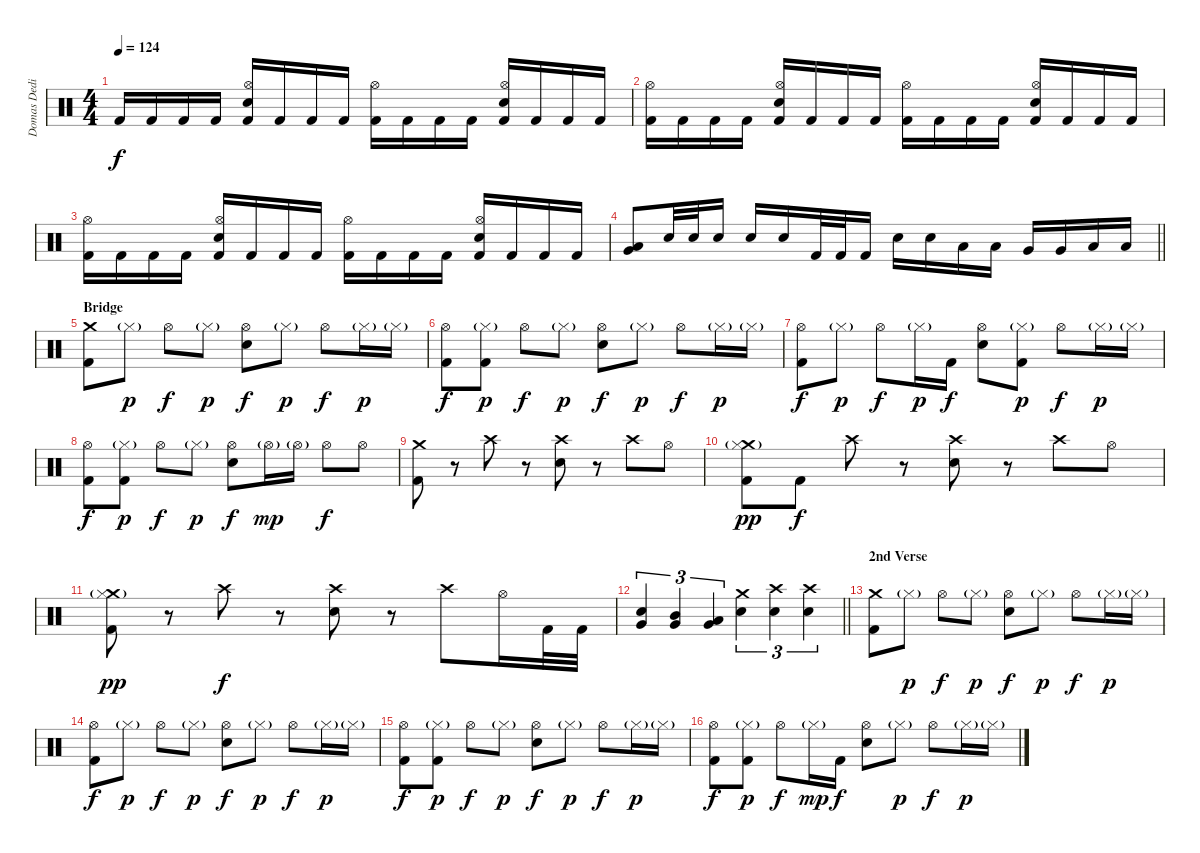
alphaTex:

\track ("Domas Dedinas" "Domas Dedi") {instrument percussion}
\staff {score}
\articulation defaults
\ts (4 4)
\tempo 124
\clef neutral
\ks c "Kick (hit) 2".16{dy f} "Kick (hit) 2".16 "Kick (hit) 2".16 "Kick (hit) 2".16
("Hi-Hat (open)" "Snare (hit) 2" "Kick (hit) 2").16 "Kick (hit) 2".16 "Kick (hit) 2".16 "Kick (hit) 2".16 ("Hi-Hat (open)" "Kick (hit) 2").16 "Kick (hit) 2".16 "Kick (hit) 2".16 "Kick (hit) 2".16 ("Hi-Hat (open)" "Snare (hit) 2" "Kick (hit) 2").16 "Kick (hit) 2".16 "Kick (hit) 2".16 "Kick (hit) 2".16 |
("Hi-Hat (open)" "Kick (hit) 2").16 "Kick (hit) 2".16 "Kick (hit) 2".16 "Kick (hit) 2".16 ("Hi-Hat (open)" "Snare (hit) 2" "Kick (hit) 2").16 "Kick (hit) 2".16 "Kick (hit) 2".16 "Kick (hit) 2".16 ("Hi-Hat (open)" "Kick (hit) 2").16 "Kick (hit) 2".16 "Kick (hit) 2".16 "Kick (hit) 2".16 ("Hi-Hat (open)" "Snare (hit) 2" "Kick (hit) 2").16 "Kick (hit) 2".16 "Kick (hit) 2".16 "Kick (hit) 2".16 |
("Hi-Hat (open)" "Kick (hit) 2").16 "Kick (hit) 2".16 "Kick (hit) 2".16 "Kick (hit) 2".16 ("Hi-Hat (open)" "Snare (hit) 2" "Kick (hit) 2").16 "Kick (hit) 2".16 "Kick (hit) 2".16 "Kick (hit) 2".16 ("Hi-Hat (open)" "Kick (hit) 2").16 "Kick (hit) 2".16 "Kick (hit) 2".16 "Kick (hit) 2".16 ("Hi-Hat (open)" "Snare (hit) 2" "Kick (hit) 2").16 "Kick (hit) 2".16 "Kick (hit) 2".16 "Kick (hit) 2".16 |
\barLineRight lightlight
("Low Tom (hit)" "Very Low Tom (hit)").8 "Snare (hit) 2".32 "Snare (hit) 2".32 "Snare (hit) 2".16 "Snare (hit) 2".16 "Snare (hit) 2".16 "Kick (hit) 2".32 "Kick (hit) 2".32 "Kick (hit) 2".16 "Snare (hit) 2".16 "Snare (hit) 2".16 "Low Tom (hit)".16 "Low Tom (hit)".16 "Very Low Tom (hit)".16 "Very Low Tom (hit)".16 "Low Floor Tom (hit)".16 "Low Floor Tom (hit)".16 |
\section ("" "Bridge")
("Crash medium (hit)" "Kick (hit) 2").8 "Hi-Hat (closed)"{g}.8{dy p} "Hi-Hat (open)".8{dy f} "Hi-Hat (closed)"{g}.8{dy p} ("Hi-Hat (open)" "Snare (hit) 2").8{dy f} "Hi-Hat (closed)"{g}.8{dy p} "Hi-Hat (open)".8{dy f} "Hi-Hat (closed)"{g}.16{dy p} "Hi-Hat (closed)"{g}.16 |
("Hi-Hat (open)" "Kick (hit) 2").8{dy f} ("Hi-Hat (closed)"{g} "Kick (hit) 2").8{dy p} "Hi-Hat (open)".8{dy f} "Hi-Hat (closed)"{g}.8{dy p} ("Hi-Hat (open)" "Snare (hit) 2").8{dy f} "Hi-Hat (closed)"{g}.8{dy p} "Hi-Hat (open)".8{dy f} "Hi-Hat (closed)"{g}.16{dy p} "Hi-Hat (closed)"{g}.16 |
("Hi-Hat (open)" "Kick (hit) 2").8{dy f} "Hi-Hat (closed)"{g}.8{dy p} "Hi-Hat (open)".8{dy f} "Hi-Hat (closed)"{g}.16{dy p} "Kick (hit) 2".16{dy f} ("Hi-Hat (open)" "Snare (hit) 2").8 ("Hi-Hat (closed)"{g} "Kick (hit) 2").8{dy p} "Hi-Hat (open)".8{dy f} "Hi-Hat (closed)"{g}.16{dy p} "Hi-Hat (closed)"{g}.16 |
("Hi-Hat (open)" "Kick (hit) 2").8{dy f} ("Hi-Hat (closed)"{g} "Kick (hit) 2").8{dy p} "Hi-Hat (open)".8{dy f} "Hi-Hat (closed)"{g}.8{dy p} ("Hi-Hat (open)" "Snare (hit) 2").8{dy f} "Hi-Hat (open)"{g}.16{dy mp} "Hi-Hat (open)"{g}.16 "Hi-Hat (open)".8{dy f} "Hi-Hat (open)".8 |
("Crash medium (hit)" "Kick (hit) 2").8 r.8 "Crash high (hit)".8 r.8 ("Crash high (hit)" "Snare (hit) 2").8 r.8 "Crash high (hit)".8 "Hi-Hat (open)".8 |
("Crash medium (hit)" "Hi-Hat (closed)"{g} "Kick (hit) 2").8{dy pp} "Kick (hit) 2".8{dy f} "Crash high (hit)".8 r.8 ("Crash high (hit)" "Snare (hit) 2").8 r.8 "Crash high (hit)".8 "Hi-Hat (open)".8 |
("Crash medium (hit)" "Hi-Hat (closed)"{g} "Kick (hit) 2").8{dy pp} r.8 "Crash high (hit)".8{dy f} r.8 ("Crash high (hit)" "Snare (hit) 2").8 r.8 "Crash high (hit)".8 "Hi-Hat (open)".16 "Kick (hit) 2".32 "Kick (hit) 2".32 |
\barLineRight lightlight
("Very Low Tom (hit)" "Snare (hit) 2").4{tu (3 2)} ("Mid Tom (hit)" "Very Low Tom (hit)").4{tu (3 2)} ("Low Tom (hit)" "Very Low Tom (hit)").4{tu (3 2)} ("Crash medium (hit)" "Snare (hit) 2").4{tu (3 2)} ("Crash high (hit)" "Snare (hit) 2").4{tu (3 2)} ("Crash high (hit)" "Snare (hit) 2").4{tu (3 2)} |
\section ("" "2nd Verse")
("Crash medium (hit)" "Kick (hit) 2").8 "Hi-Hat (closed)"{g}.8{dy p} "Hi-Hat (open)".8{dy f} "Hi-Hat (closed)"{g}.8{dy p} ("Hi-Hat (open)" "Snare (hit) 2").8{dy f} "Hi-Hat (closed)"{g}.8{dy p} "Hi-Hat (open)".8{dy f} "Hi-Hat (closed)"{g}.16{dy p} "Hi-Hat (closed)"{g}.16 |
("Hi-Hat (open)" "Kick (hit) 2").8{dy f} "Hi-Hat (closed)"{g}.8{dy p} "Hi-Hat (open)".8{dy f} "Hi-Hat (closed)"{g}.8{dy p} ("Hi-Hat (open)" "Snare (hit) 2").8{dy f} "Hi-Hat (closed)"{g}.8{dy p} "Hi-Hat (open)".8{dy f} "Hi-Hat (closed)"{g}.16{dy p} "Hi-Hat (closed)"{g}.16 |
("Hi-Hat (open)" "Kick (hit) 2").8{dy f} ("Hi-Hat (closed)"{g} "Kick (hit) 2").8{dy p} "Hi-Hat (open)".8{dy f} "Hi-Hat (closed)"{g}.8{dy p} ("Hi-Hat (open)" "Snare (hit) 2").8{dy f} "Hi-Hat (closed)"{g}.8{dy p} "Hi-Hat (open)".8{dy f} "Hi-Hat (closed)"{g}.16{dy p} "Hi-Hat (closed)"{g}.16 |
("Hi-Hat (open)" "Kick (hit) 2").8{dy f} ("Hi-Hat (closed)"{g} "Kick (hit) 2").8{dy p} "Hi-Hat (open)".8{dy f} "Hi-Hat (closed)"{g}.16{dy mp} "Kick (hit) 2".16{dy f} ("Hi-Hat (open)" "Snare (hit) 2").8 "Hi-Hat (closed)"{g}.8{dy p} "Hi-Hat (open)".8{dy f} "Hi-Hat (closed)"{g}.16{dy p} "Hi-Hat (closed)"{g}.16
